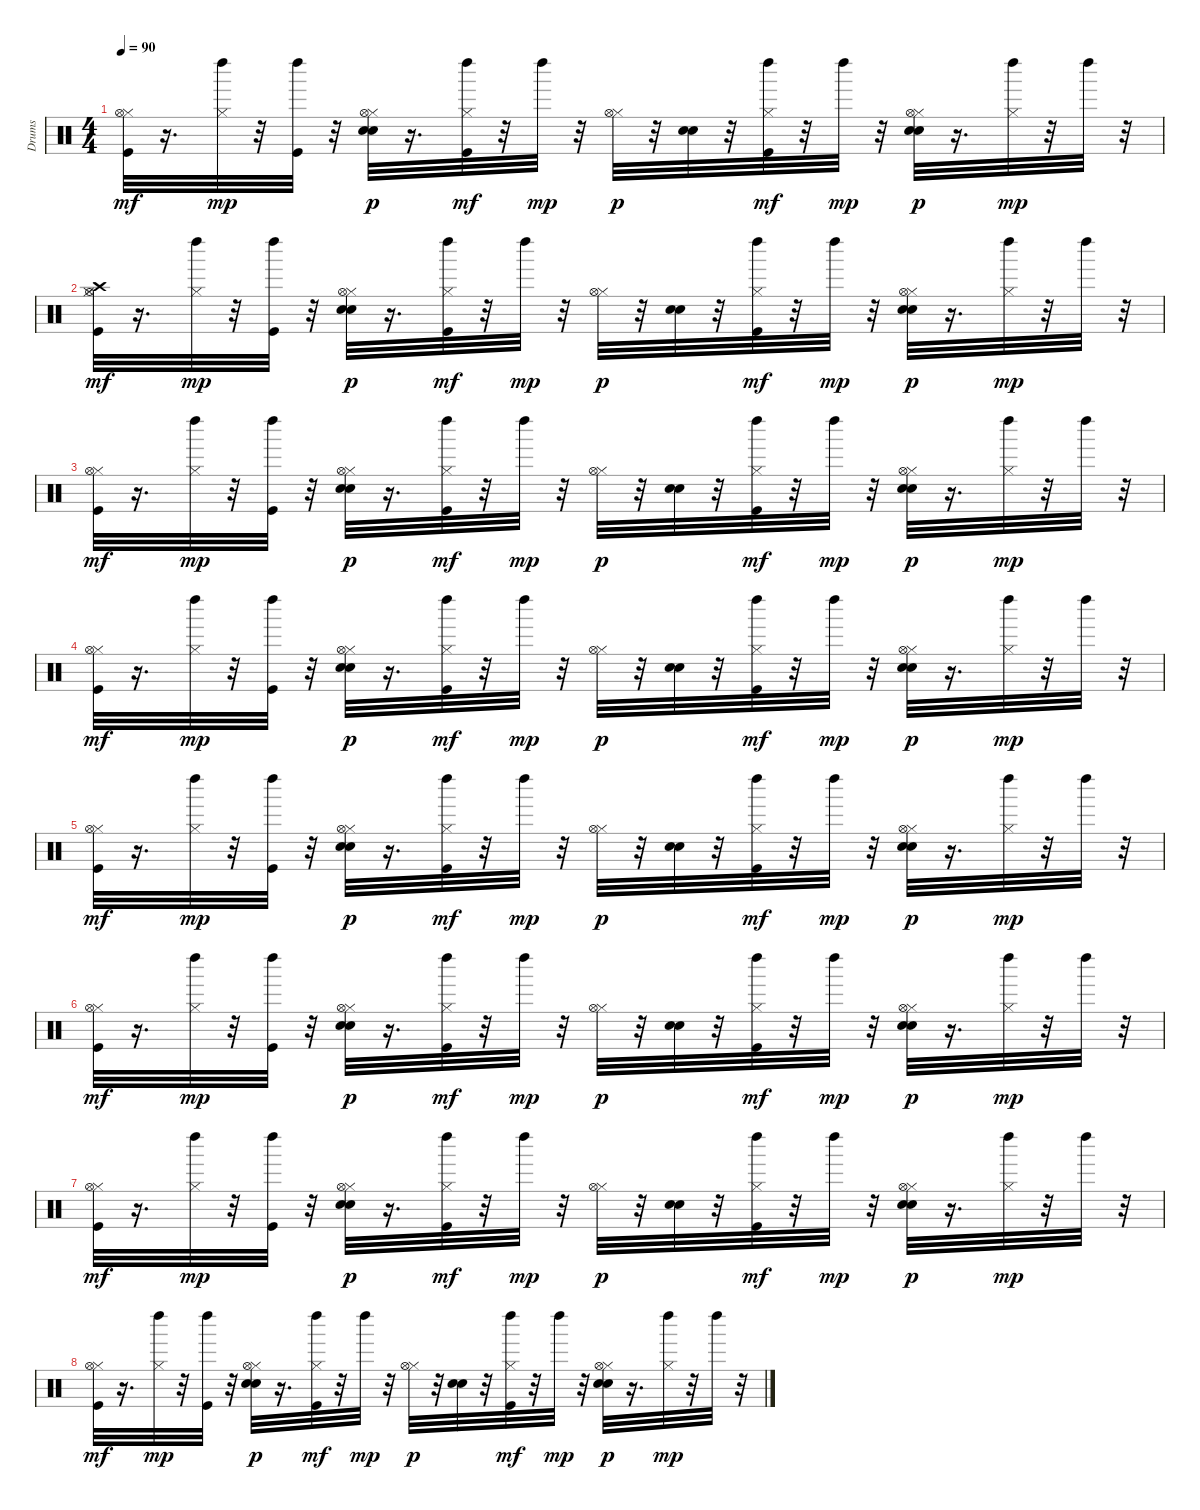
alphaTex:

\track ("Drums" "Drums") {instrument percussion}
\staff {score}
\articulation defaults
\ts (4 4)
\tempo 90
\clef neutral
\ks c
("Hi-Hat (closed)" "Hi-Hat (open)" "Kick (hit)").32{dy mf} r.16{d} ("Hi-Hat (closed)" "Left Maraca (hit)").32{dy mp} r.32 ("Kick (hit)" "Left Maraca (hit)").32 r.32 ("Snare (hit) 2" "Electric Snare (hit)" "Hi-Hat (closed)" "Hi-Hat (open)").32{dy p} r.16{d} ("Hi-Hat (closed)" "Left Maraca (hit)" "Kick (hit)").32{dy mf} r.32 "Left Maraca (hit)".32{dy mp} r.32 ("Hi-Hat (closed)" "Hi-Hat (open)").32{dy p} r.32 ("Electric Snare (hit)" "Snare (hit) 2").32 r.32 ("Hi-Hat (closed)" "Left Maraca (hit)" "Kick (hit)").32{dy mf} r.32 "Left Maraca (hit)".32{dy mp} r.32 ("Snare (hit) 2" "Electric Snare (hit)" "Hi-Hat (closed)" "Hi-Hat (open)").32{dy p} r.16{d} ("Hi-Hat (closed)" "Left Maraca (hit)").32{dy mp} r.32 "Left Maraca (hit)".32 r.32 |
("Crash high (hit)" "Hi-Hat (closed)" "Hi-Hat (open)" "Kick (hit)").32{dy mf} r.16{d} ("Hi-Hat (closed)" "Left Maraca (hit)").32{dy mp} r.32 ("Kick (hit)" "Left Maraca (hit)").32 r.32 ("Snare (hit) 2" "Electric Snare (hit)" "Hi-Hat (closed)" "Hi-Hat (open)").32{dy p} r.16{d} ("Hi-Hat (closed)" "Left Maraca (hit)" "Kick (hit)").32{dy mf} r.32 "Left Maraca (hit)".32{dy mp} r.32 ("Hi-Hat (closed)" "Hi-Hat (open)").32{dy p} r.32 ("Electric Snare (hit)" "Snare (hit) 2").32 r.32 ("Hi-Hat (closed)" "Left Maraca (hit)" "Kick (hit)").32{dy mf} r.32 "Left Maraca (hit)".32{dy mp} r.32 ("Snare (hit) 2" "Electric Snare (hit)" "Hi-Hat (closed)" "Hi-Hat (open)").32{dy p} r.16{d} ("Hi-Hat (closed)" "Left Maraca (hit)").32{dy mp} r.32 "Left Maraca (hit)".32 r.32 |
("Hi-Hat (closed)" "Hi-Hat (open)" "Kick (hit)").32{dy mf} r.16{d} ("Hi-Hat (closed)" "Left Maraca (hit)").32{dy mp} r.32 ("Kick (hit)" "Left Maraca (hit)").32 r.32 ("Snare (hit) 2" "Electric Snare (hit)" "Hi-Hat (closed)" "Hi-Hat (open)").32{dy p} r.16{d} ("Hi-Hat (closed)" "Left Maraca (hit)" "Kick (hit)").32{dy mf} r.32 "Left Maraca (hit)".32{dy mp} r.32 ("Hi-Hat (closed)" "Hi-Hat (open)").32{dy p} r.32 ("Electric Snare (hit)" "Snare (hit) 2").32 r.32 ("Hi-Hat (closed)" "Left Maraca (hit)" "Kick (hit)").32{dy mf} r.32 "Left Maraca (hit)".32{dy mp} r.32 ("Snare (hit) 2" "Electric Snare (hit)" "Hi-Hat (closed)" "Hi-Hat (open)").32{dy p} r.16{d} ("Hi-Hat (closed)" "Left Maraca (hit)").32{dy mp} r.32 "Left Maraca (hit)".32 r.32 |
("Hi-Hat (closed)" "Hi-Hat (open)" "Kick (hit)").32{dy mf} r.16{d} ("Hi-Hat (closed)" "Left Maraca (hit)").32{dy mp} r.32 ("Kick (hit)" "Left Maraca (hit)").32 r.32 ("Snare (hit) 2" "Electric Snare (hit)" "Hi-Hat (closed)" "Hi-Hat (open)").32{dy p} r.16{d} ("Hi-Hat (closed)" "Left Maraca (hit)" "Kick (hit)").32{dy mf} r.32 "Left Maraca (hit)".32{dy mp} r.32 ("Hi-Hat (closed)" "Hi-Hat (open)").32{dy p} r.32 ("Electric Snare (hit)" "Snare (hit) 2").32 r.32 ("Hi-Hat (closed)" "Left Maraca (hit)" "Kick (hit)").32{dy mf} r.32 "Left Maraca (hit)".32{dy mp} r.32 ("Snare (hit) 2" "Electric Snare (hit)" "Hi-Hat (closed)" "Hi-Hat (open)").32{dy p} r.16{d} ("Hi-Hat (closed)" "Left Maraca (hit)").32{dy mp} r.32 "Left Maraca (hit)".32 r.32 |
("Hi-Hat (closed)" "Hi-Hat (open)" "Kick (hit)").32{dy mf} r.16{d} ("Hi-Hat (closed)" "Left Maraca (hit)").32{dy mp} r.32 ("Kick (hit)" "Left Maraca (hit)").32 r.32 ("Snare (hit) 2" "Electric Snare (hit)" "Hi-Hat (closed)" "Hi-Hat (open)").32{dy p} r.16{d} ("Hi-Hat (closed)" "Left Maraca (hit)" "Kick (hit)").32{dy mf} r.32 "Left Maraca (hit)".32{dy mp} r.32 ("Hi-Hat (closed)" "Hi-Hat (open)").32{dy p} r.32 ("Electric Snare (hit)" "Snare (hit) 2").32 r.32 ("Hi-Hat (closed)" "Left Maraca (hit)" "Kick (hit)").32{dy mf} r.32 "Left Maraca (hit)".32{dy mp} r.32 ("Snare (hit) 2" "Electric Snare (hit)" "Hi-Hat (closed)" "Hi-Hat (open)").32{dy p} r.16{d} ("Hi-Hat (closed)" "Left Maraca (hit)").32{dy mp} r.32 "Left Maraca (hit)".32 r.32 |
("Hi-Hat (closed)" "Hi-Hat (open)" "Kick (hit)").32{dy mf} r.16{d} ("Hi-Hat (closed)" "Left Maraca (hit)").32{dy mp} r.32 ("Kick (hit)" "Left Maraca (hit)").32 r.32 ("Snare (hit) 2" "Electric Snare (hit)" "Hi-Hat (closed)" "Hi-Hat (open)").32{dy p} r.16{d} ("Hi-Hat (closed)" "Left Maraca (hit)" "Kick (hit)").32{dy mf} r.32 "Left Maraca (hit)".32{dy mp} r.32 ("Hi-Hat (closed)" "Hi-Hat (open)").32{dy p} r.32 ("Electric Snare (hit)" "Snare (hit) 2").32 r.32 ("Hi-Hat (closed)" "Left Maraca (hit)" "Kick (hit)").32{dy mf} r.32 "Left Maraca (hit)".32{dy mp} r.32 ("Snare (hit) 2" "Electric Snare (hit)" "Hi-Hat (closed)" "Hi-Hat (open)").32{dy p} r.16{d} ("Hi-Hat (closed)" "Left Maraca (hit)").32{dy mp} r.32 "Left Maraca (hit)".32 r.32 |
("Hi-Hat (closed)" "Hi-Hat (open)" "Kick (hit)").32{dy mf} r.16{d} ("Hi-Hat (closed)" "Left Maraca (hit)").32{dy mp} r.32 ("Kick (hit)" "Left Maraca (hit)").32 r.32 ("Snare (hit) 2" "Electric Snare (hit)" "Hi-Hat (closed)" "Hi-Hat (open)").32{dy p} r.16{d} ("Hi-Hat (closed)" "Left Maraca (hit)" "Kick (hit)").32{dy mf} r.32 "Left Maraca (hit)".32{dy mp} r.32 ("Hi-Hat (closed)" "Hi-Hat (open)").32{dy p} r.32 ("Electric Snare (hit)" "Snare (hit) 2").32 r.32 ("Hi-Hat (closed)" "Left Maraca (hit)" "Kick (hit)").32{dy mf} r.32 "Left Maraca (hit)".32{dy mp} r.32 ("Snare (hit) 2" "Electric Snare (hit)" "Hi-Hat (closed)" "Hi-Hat (open)").32{dy p} r.16{d} ("Hi-Hat (closed)" "Left Maraca (hit)").32{dy mp} r.32 "Left Maraca (hit)".32 r.32 |
("Hi-Hat (closed)" "Hi-Hat (open)" "Kick (hit)").32{dy mf} r.16{d} ("Hi-Hat (closed)" "Left Maraca (hit)").32{dy mp} r.32 ("Kick (hit)" "Left Maraca (hit)").32 r.32 ("Snare (hit) 2" "Electric Snare (hit)" "Hi-Hat (closed)" "Hi-Hat (open)").32{dy p} r.16{d} ("Hi-Hat (closed)" "Left Maraca (hit)" "Kick (hit)").32{dy mf} r.32 "Left Maraca (hit)".32{dy mp} r.32 ("Hi-Hat (closed)" "Hi-Hat (open)").32{dy p} r.32 ("Electric Snare (hit)" "Snare (hit) 2").32 r.32 ("Hi-Hat (closed)" "Left Maraca (hit)" "Kick (hit)").32{dy mf} r.32 "Left Maraca (hit)".32{dy mp} r.32 ("Snare (hit) 2" "Electric Snare (hit)" "Hi-Hat (closed)" "Hi-Hat (open)").32{dy p} r.16{d} ("Hi-Hat (closed)" "Left Maraca (hit)").32{dy mp} r.32 "Left Maraca (hit)".32 r.32
